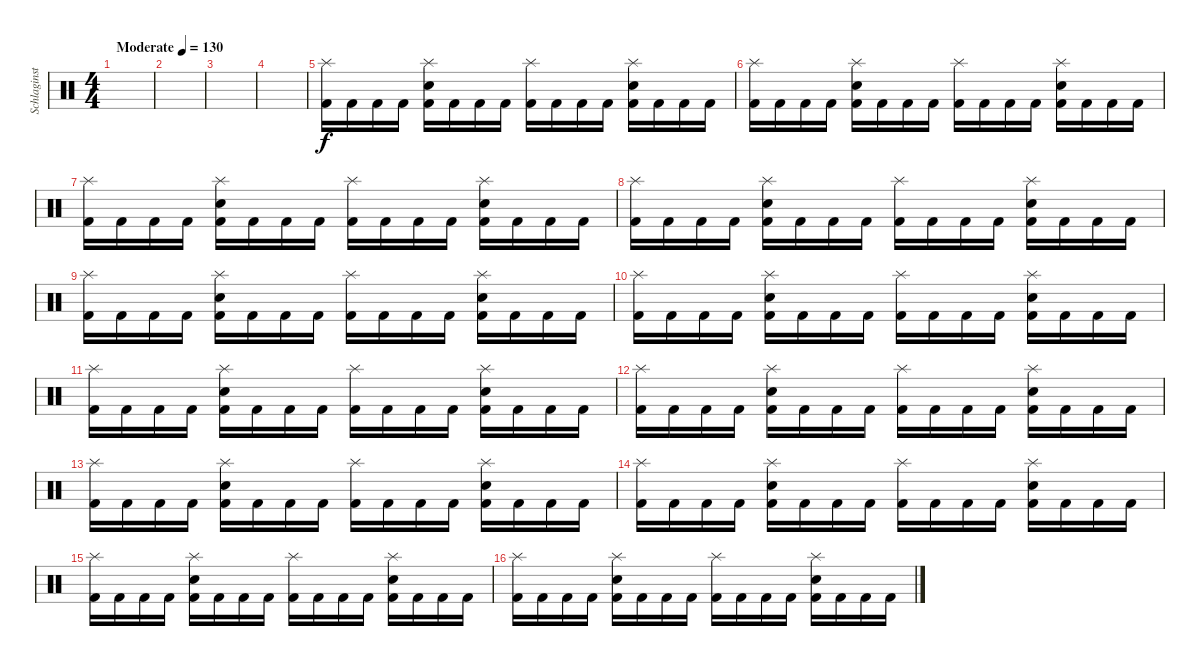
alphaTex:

\track ("Schlaginstrumente - Auswahl" "Schlaginst") {instrument percussion}
\staff {score}
\articulation defaults
\ts (4 4)
\tempo (130 "Moderate")
\clef neutral
\ks c
|
|
|
|
("Splash (hit)" "Kick (hit) 2").16{volume 13} "Kick (hit) 2".16 "Kick (hit) 2".16 "Kick (hit) 2".16 ("Splash (hit)" "Snare (hit) 2" "Kick (hit) 2").16 "Kick (hit) 2".16 "Kick (hit) 2".16 "Kick (hit) 2".16 ("Splash (hit)" "Kick (hit) 2").16 "Kick (hit) 2".16 "Kick (hit) 2".16 "Kick (hit) 2".16 ("Splash (hit)" "Snare (hit) 2" "Kick (hit) 2").16 "Kick (hit) 2".16 "Kick (hit) 2".16 "Kick (hit) 2".16 |
("Splash (hit)" "Kick (hit) 2").16 "Kick (hit) 2".16 "Kick (hit) 2".16 "Kick (hit) 2".16 ("Splash (hit)" "Snare (hit) 2" "Kick (hit) 2").16 "Kick (hit) 2".16 "Kick (hit) 2".16 "Kick (hit) 2".16 ("Splash (hit)" "Kick (hit) 2").16 "Kick (hit) 2".16 "Kick (hit) 2".16 "Kick (hit) 2".16 ("Splash (hit)" "Snare (hit) 2" "Kick (hit) 2").16 "Kick (hit) 2".16 "Kick (hit) 2".16 "Kick (hit) 2".16 |
("Splash (hit)" "Kick (hit) 2").16 "Kick (hit) 2".16 "Kick (hit) 2".16 "Kick (hit) 2".16 ("Splash (hit)" "Snare (hit) 2" "Kick (hit) 2").16 "Kick (hit) 2".16 "Kick (hit) 2".16 "Kick (hit) 2".16 ("Splash (hit)" "Kick (hit) 2").16 "Kick (hit) 2".16 "Kick (hit) 2".16 "Kick (hit) 2".16 ("Splash (hit)" "Snare (hit) 2" "Kick (hit) 2").16 "Kick (hit) 2".16 "Kick (hit) 2".16 "Kick (hit) 2".16 |
("Splash (hit)" "Kick (hit) 2").16 "Kick (hit) 2".16 "Kick (hit) 2".16 "Kick (hit) 2".16 ("Splash (hit)" "Snare (hit) 2" "Kick (hit) 2").16 "Kick (hit) 2".16 "Kick (hit) 2".16 "Kick (hit) 2".16 ("Splash (hit)" "Kick (hit) 2").16 "Kick (hit) 2".16 "Kick (hit) 2".16 "Kick (hit) 2".16 ("Splash (hit)" "Snare (hit) 2" "Kick (hit) 2").16 "Kick (hit) 2".16 "Kick (hit) 2".16 "Kick (hit) 2".16 |
("Splash (hit)" "Kick (hit) 2").16 "Kick (hit) 2".16 "Kick (hit) 2".16 "Kick (hit) 2".16 ("Splash (hit)" "Snare (hit) 2" "Kick (hit) 2").16 "Kick (hit) 2".16 "Kick (hit) 2".16 "Kick (hit) 2".16 ("Splash (hit)" "Kick (hit) 2").16 "Kick (hit) 2".16 "Kick (hit) 2".16 "Kick (hit) 2".16 ("Splash (hit)" "Snare (hit) 2" "Kick (hit) 2").16 "Kick (hit) 2".16 "Kick (hit) 2".16 "Kick (hit) 2".16 |
("Splash (hit)" "Kick (hit) 2").16 "Kick (hit) 2".16 "Kick (hit) 2".16 "Kick (hit) 2".16 ("Splash (hit)" "Snare (hit) 2" "Kick (hit) 2").16 "Kick (hit) 2".16 "Kick (hit) 2".16 "Kick (hit) 2".16 ("Splash (hit)" "Kick (hit) 2").16 "Kick (hit) 2".16 "Kick (hit) 2".16 "Kick (hit) 2".16 ("Splash (hit)" "Snare (hit) 2" "Kick (hit) 2").16 "Kick (hit) 2".16 "Kick (hit) 2".16 "Kick (hit) 2".16 |
("Splash (hit)" "Kick (hit) 2").16 "Kick (hit) 2".16 "Kick (hit) 2".16 "Kick (hit) 2".16 ("Splash (hit)" "Snare (hit) 2" "Kick (hit) 2").16 "Kick (hit) 2".16 "Kick (hit) 2".16 "Kick (hit) 2".16 ("Splash (hit)" "Kick (hit) 2").16 "Kick (hit) 2".16 "Kick (hit) 2".16 "Kick (hit) 2".16 ("Splash (hit)" "Snare (hit) 2" "Kick (hit) 2").16 "Kick (hit) 2".16 "Kick (hit) 2".16 "Kick (hit) 2".16 |
("Splash (hit)" "Kick (hit) 2").16 "Kick (hit) 2".16 "Kick (hit) 2".16 "Kick (hit) 2".16 ("Splash (hit)" "Snare (hit) 2" "Kick (hit) 2").16 "Kick (hit) 2".16 "Kick (hit) 2".16 "Kick (hit) 2".16 ("Splash (hit)" "Kick (hit) 2").16 "Kick (hit) 2".16 "Kick (hit) 2".16 "Kick (hit) 2".16 ("Splash (hit)" "Snare (hit) 2" "Kick (hit) 2").16 "Kick (hit) 2".16 "Kick (hit) 2".16 "Kick (hit) 2".16 |
("Splash (hit)" "Kick (hit) 2").16 "Kick (hit) 2".16 "Kick (hit) 2".16 "Kick (hit) 2".16 ("Splash (hit)" "Snare (hit) 2" "Kick (hit) 2").16 "Kick (hit) 2".16 "Kick (hit) 2".16 "Kick (hit) 2".16 ("Splash (hit)" "Kick (hit) 2").16 "Kick (hit) 2".16 "Kick (hit) 2".16 "Kick (hit) 2".16 ("Splash (hit)" "Snare (hit) 2" "Kick (hit) 2").16 "Kick (hit) 2".16 "Kick (hit) 2".16 "Kick (hit) 2".16 |
("Splash (hit)" "Kick (hit) 2").16 "Kick (hit) 2".16 "Kick (hit) 2".16 "Kick (hit) 2".16 ("Splash (hit)" "Snare (hit) 2" "Kick (hit) 2").16 "Kick (hit) 2".16 "Kick (hit) 2".16 "Kick (hit) 2".16 ("Splash (hit)" "Kick (hit) 2").16 "Kick (hit) 2".16 "Kick (hit) 2".16 "Kick (hit) 2".16 ("Splash (hit)" "Snare (hit) 2" "Kick (hit) 2").16 "Kick (hit) 2".16 "Kick (hit) 2".16 "Kick (hit) 2".16 |
("Splash (hit)" "Kick (hit) 2").16 "Kick (hit) 2".16 "Kick (hit) 2".16 "Kick (hit) 2".16 ("Splash (hit)" "Snare (hit) 2" "Kick (hit) 2").16 "Kick (hit) 2".16 "Kick (hit) 2".16 "Kick (hit) 2".16 ("Splash (hit)" "Kick (hit) 2").16 "Kick (hit) 2".16 "Kick (hit) 2".16 "Kick (hit) 2".16 ("Splash (hit)" "Snare (hit) 2" "Kick (hit) 2").16 "Kick (hit) 2".16 "Kick (hit) 2".16 "Kick (hit) 2".16 |
("Splash (hit)" "Kick (hit) 2").16 "Kick (hit) 2".16 "Kick (hit) 2".16 "Kick (hit) 2".16 ("Splash (hit)" "Snare (hit) 2" "Kick (hit) 2").16 "Kick (hit) 2".16 "Kick (hit) 2".16 "Kick (hit) 2".16 ("Splash (hit)" "Kick (hit) 2").16 "Kick (hit) 2".16 "Kick (hit) 2".16 "Kick (hit) 2".16 ("Splash (hit)" "Snare (hit) 2" "Kick (hit) 2").16 "Kick (hit) 2".16 "Kick (hit) 2".16 "Kick (hit) 2".16
